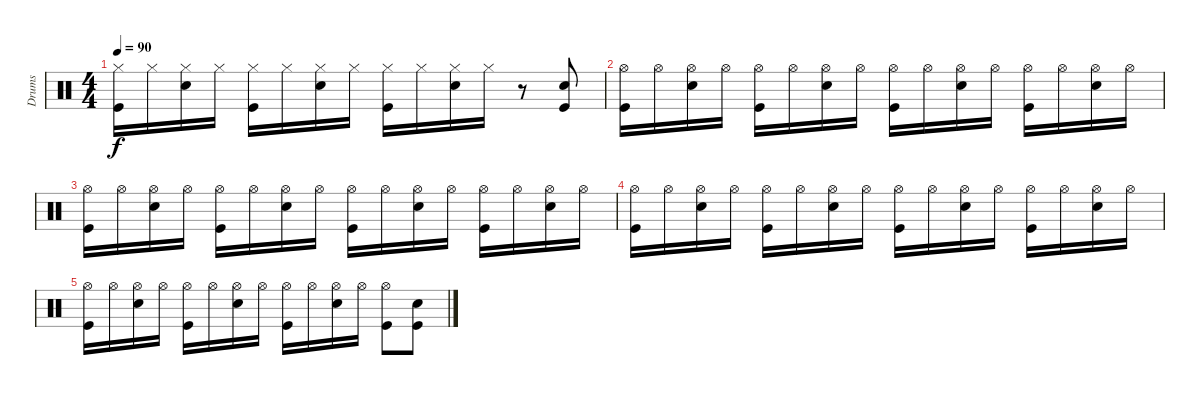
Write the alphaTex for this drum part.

\track ("Drums" "Drums") {instrument percussion}
\staff {score}
\articulation defaults
\ts (4 4)
\tempo 90
\clef neutral
\ks c
("Hi-Hat (closed)" "Kick (hit)").16{dy f} "Hi-Hat (closed)".16 ("Hi-Hat (closed)" "Electric Snare (hit)").16 "Hi-Hat (closed)".16 ("Hi-Hat (closed)" "Kick (hit)").16 "Hi-Hat (closed)".16 ("Hi-Hat (closed)" "Electric Snare (hit)").16 "Hi-Hat (closed)".16 ("Hi-Hat (closed)" "Kick (hit)").16 "Hi-Hat (closed)".16 ("Hi-Hat (closed)" "Electric Snare (hit)").16 "Hi-Hat (closed)".16 r.8 ("Kick (hit)" "Electric Snare (hit)").8 |
("Hi-Hat (open)" "Kick (hit)").16 "Hi-Hat (open)".16 ("Hi-Hat (open)" "Electric Snare (hit)").16 "Hi-Hat (open)".16 ("Hi-Hat (open)" "Kick (hit)").16 "Hi-Hat (open)".16 ("Hi-Hat (open)" "Electric Snare (hit)").16 "Hi-Hat (open)".16 ("Hi-Hat (open)" "Kick (hit)").16 "Hi-Hat (open)".16 ("Hi-Hat (open)" "Electric Snare (hit)").16 "Hi-Hat (open)".16 ("Hi-Hat (open)" "Kick (hit)").16 "Hi-Hat (open)".16 ("Hi-Hat (open)" "Electric Snare (hit)").16 "Hi-Hat (open)".16 |
("Hi-Hat (open)" "Kick (hit)").16 "Hi-Hat (open)".16 ("Hi-Hat (open)" "Electric Snare (hit)").16 "Hi-Hat (open)".16 ("Hi-Hat (open)" "Kick (hit)").16 "Hi-Hat (open)".16 ("Hi-Hat (open)" "Electric Snare (hit)").16 "Hi-Hat (open)".16 ("Hi-Hat (open)" "Kick (hit)").16 "Hi-Hat (open)".16 ("Hi-Hat (open)" "Electric Snare (hit)").16 "Hi-Hat (open)".16 ("Hi-Hat (open)" "Kick (hit)").16 "Hi-Hat (open)".16 ("Hi-Hat (open)" "Electric Snare (hit)").16 "Hi-Hat (open)".16 |
("Hi-Hat (open)" "Kick (hit)").16 "Hi-Hat (open)".16 ("Hi-Hat (open)" "Electric Snare (hit)").16 "Hi-Hat (open)".16 ("Hi-Hat (open)" "Kick (hit)").16 "Hi-Hat (open)".16 ("Hi-Hat (open)" "Electric Snare (hit)").16 "Hi-Hat (open)".16 ("Hi-Hat (open)" "Kick (hit)").16 "Hi-Hat (open)".16 ("Hi-Hat (open)" "Electric Snare (hit)").16 "Hi-Hat (open)".16 ("Hi-Hat (open)" "Kick (hit)").16 "Hi-Hat (open)".16 ("Hi-Hat (open)" "Electric Snare (hit)").16 "Hi-Hat (open)".16 |
("Hi-Hat (open)" "Kick (hit)").16 "Hi-Hat (open)".16 ("Hi-Hat (open)" "Electric Snare (hit)").16 "Hi-Hat (open)".16 ("Hi-Hat (open)" "Kick (hit)").16 "Hi-Hat (open)".16 ("Hi-Hat (open)" "Electric Snare (hit)").16 "Hi-Hat (open)".16 ("Hi-Hat (open)" "Kick (hit)").16 "Hi-Hat (open)".16 ("Hi-Hat (open)" "Electric Snare (hit)").16 "Hi-Hat (open)".16 ("Hi-Hat (open)" "Kick (hit)").8 ("Kick (hit)" "Electric Snare (hit)").8
